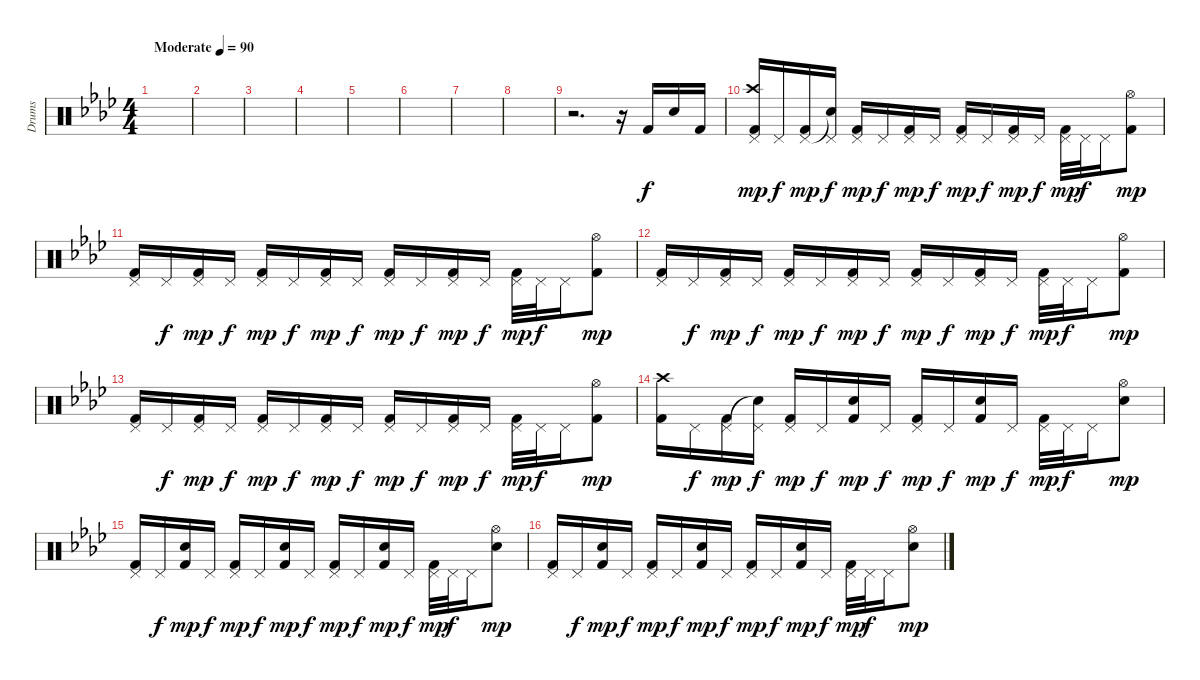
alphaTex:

\track ("Drums" "Drums") {instrument percussion}
\staff {score}
\articulation defaults
\ts (4 4)
\tempo (90 "Moderate")
\clef neutral
\ks ab
|
|
|
|
|
|
|
|
r.2{d} r.16 "Kick (hit) 2".16 "Snare (hit) 2".16 "Kick (hit) 2".16 |
("Crash high (hit)" "Pedal Hi-Hat (hit)" "Kick (hit) 2").16{dy mp} "Pedal Hi-Hat (hit)".16{dy f} ("Pedal Hi-Hat (hit)" "Kick (hit) 2").16{dy mp} ("Snare (hit)"{t} "Pedal Hi-Hat (hit)").16{dy f} ("Pedal Hi-Hat (hit)" "Kick (hit) 2").16{dy mp} "Pedal Hi-Hat (hit)".16{dy f} ("Pedal Hi-Hat (hit)" "Kick (hit) 2").16{dy mp} "Pedal Hi-Hat (hit)".16{dy f} ("Pedal Hi-Hat (hit)" "Kick (hit) 2").16{dy mp} "Pedal Hi-Hat (hit)".16{dy f} ("Pedal Hi-Hat (hit)" "Kick (hit) 2").16{dy mp} "Pedal Hi-Hat (hit)".16{dy f} ("Pedal Hi-Hat (hit)" "Kick (hit) 2").32{dy mp} "Pedal Hi-Hat (hit)".32{dy f} "Pedal Hi-Hat (hit)".16 ("Hi-Hat (open)" "Kick (hit) 2").8{dy mp} |
("Pedal Hi-Hat (hit)" "Kick (hit) 2").16 "Pedal Hi-Hat (hit)".16{dy f} ("Pedal Hi-Hat (hit)" "Kick (hit) 2").16{dy mp} "Pedal Hi-Hat (hit)".16{dy f} ("Pedal Hi-Hat (hit)" "Kick (hit) 2").16{dy mp} "Pedal Hi-Hat (hit)".16{dy f} ("Pedal Hi-Hat (hit)" "Kick (hit) 2").16{dy mp} "Pedal Hi-Hat (hit)".16{dy f} ("Pedal Hi-Hat (hit)" "Kick (hit) 2").16{dy mp} "Pedal Hi-Hat (hit)".16{dy f} ("Pedal Hi-Hat (hit)" "Kick (hit) 2").16{dy mp} "Pedal Hi-Hat (hit)".16{dy f} ("Pedal Hi-Hat (hit)" "Kick (hit) 2").32{dy mp} "Pedal Hi-Hat (hit)".32{dy f} "Pedal Hi-Hat (hit)".16 ("Hi-Hat (open)" "Kick (hit) 2").8{dy mp} |
("Pedal Hi-Hat (hit)" "Kick (hit) 2").16 "Pedal Hi-Hat (hit)".16{dy f} ("Pedal Hi-Hat (hit)" "Kick (hit) 2").16{dy mp} "Pedal Hi-Hat (hit)".16{dy f} ("Pedal Hi-Hat (hit)" "Kick (hit) 2").16{dy mp} "Pedal Hi-Hat (hit)".16{dy f} ("Pedal Hi-Hat (hit)" "Kick (hit) 2").16{dy mp} "Pedal Hi-Hat (hit)".16{dy f} ("Pedal Hi-Hat (hit)" "Kick (hit) 2").16{dy mp} "Pedal Hi-Hat (hit)".16{dy f} ("Pedal Hi-Hat (hit)" "Kick (hit) 2").16{dy mp} "Pedal Hi-Hat (hit)".16{dy f} ("Pedal Hi-Hat (hit)" "Kick (hit) 2").32{dy mp} "Pedal Hi-Hat (hit)".32{dy f} "Pedal Hi-Hat (hit)".16 ("Hi-Hat (open)" "Kick (hit) 2").8{dy mp} |
("Pedal Hi-Hat (hit)" "Kick (hit) 2").16 "Pedal Hi-Hat (hit)".16{dy f} ("Pedal Hi-Hat (hit)" "Kick (hit) 2").16{dy mp} "Pedal Hi-Hat (hit)".16{dy f} ("Pedal Hi-Hat (hit)" "Kick (hit) 2").16{dy mp} "Pedal Hi-Hat (hit)".16{dy f} ("Pedal Hi-Hat (hit)" "Kick (hit) 2").16{dy mp} "Pedal Hi-Hat (hit)".16{dy f} ("Pedal Hi-Hat (hit)" "Kick (hit) 2").16{dy mp} "Pedal Hi-Hat (hit)".16{dy f} ("Pedal Hi-Hat (hit)" "Kick (hit) 2").16{dy mp} "Pedal Hi-Hat (hit)".16{dy f} ("Pedal Hi-Hat (hit)" "Kick (hit) 2").32{dy mp} "Pedal Hi-Hat (hit)".32{dy f} "Pedal Hi-Hat (hit)".16 ("Hi-Hat (open)" "Kick (hit) 2").8{dy mp} |
("Crash high (hit)" "Kick (hit) 2").16 "Pedal Hi-Hat (hit)".16{dy f} ("Pedal Hi-Hat (hit)" "Kick (hit) 2").16{dy mp} ("Snare (hit)"{t} "Pedal Hi-Hat (hit)").16{dy f} ("Pedal Hi-Hat (hit)" "Kick (hit) 2").16{dy mp} "Pedal Hi-Hat (hit)".16{dy f} ("Snare (hit) 2" "Kick (hit) 2").16{dy mp} "Pedal Hi-Hat (hit)".16{dy f} ("Pedal Hi-Hat (hit)" "Kick (hit) 2").16{dy mp} "Pedal Hi-Hat (hit)".16{dy f} ("Snare (hit) 2" "Kick (hit) 2").16{dy mp} "Pedal Hi-Hat (hit)".16{dy f} ("Pedal Hi-Hat (hit)" "Kick (hit) 2").32{dy mp} "Pedal Hi-Hat (hit)".32{dy f} "Pedal Hi-Hat (hit)".16 ("Snare (hit) 2" "Hi-Hat (open)").8{dy mp} |
("Pedal Hi-Hat (hit)" "Kick (hit) 2").16 "Pedal Hi-Hat (hit)".16{dy f} ("Snare (hit) 2" "Kick (hit) 2").16{dy mp} "Pedal Hi-Hat (hit)".16{dy f} ("Pedal Hi-Hat (hit)" "Kick (hit) 2").16{dy mp} "Pedal Hi-Hat (hit)".16{dy f} ("Snare (hit) 2" "Kick (hit) 2").16{dy mp} "Pedal Hi-Hat (hit)".16{dy f} ("Pedal Hi-Hat (hit)" "Kick (hit) 2").16{dy mp} "Pedal Hi-Hat (hit)".16{dy f} ("Snare (hit) 2" "Kick (hit) 2").16{dy mp} "Pedal Hi-Hat (hit)".16{dy f} ("Pedal Hi-Hat (hit)" "Kick (hit) 2").32{dy mp} "Pedal Hi-Hat (hit)".32{dy f} "Pedal Hi-Hat (hit)".16 ("Snare (hit) 2" "Hi-Hat (open)").8{dy mp} |
("Pedal Hi-Hat (hit)" "Kick (hit) 2").16 "Pedal Hi-Hat (hit)".16{dy f} ("Snare (hit) 2" "Kick (hit) 2").16{dy mp} "Pedal Hi-Hat (hit)".16{dy f} ("Pedal Hi-Hat (hit)" "Kick (hit) 2").16{dy mp} "Pedal Hi-Hat (hit)".16{dy f} ("Snare (hit) 2" "Kick (hit) 2").16{dy mp} "Pedal Hi-Hat (hit)".16{dy f} ("Pedal Hi-Hat (hit)" "Kick (hit) 2").16{dy mp} "Pedal Hi-Hat (hit)".16{dy f} ("Snare (hit) 2" "Kick (hit) 2").16{dy mp} "Pedal Hi-Hat (hit)".16{dy f} ("Pedal Hi-Hat (hit)" "Kick (hit) 2").32{dy mp} "Pedal Hi-Hat (hit)".32{dy f} "Pedal Hi-Hat (hit)".16 ("Snare (hit) 2" "Hi-Hat (open)").8{dy mp}
